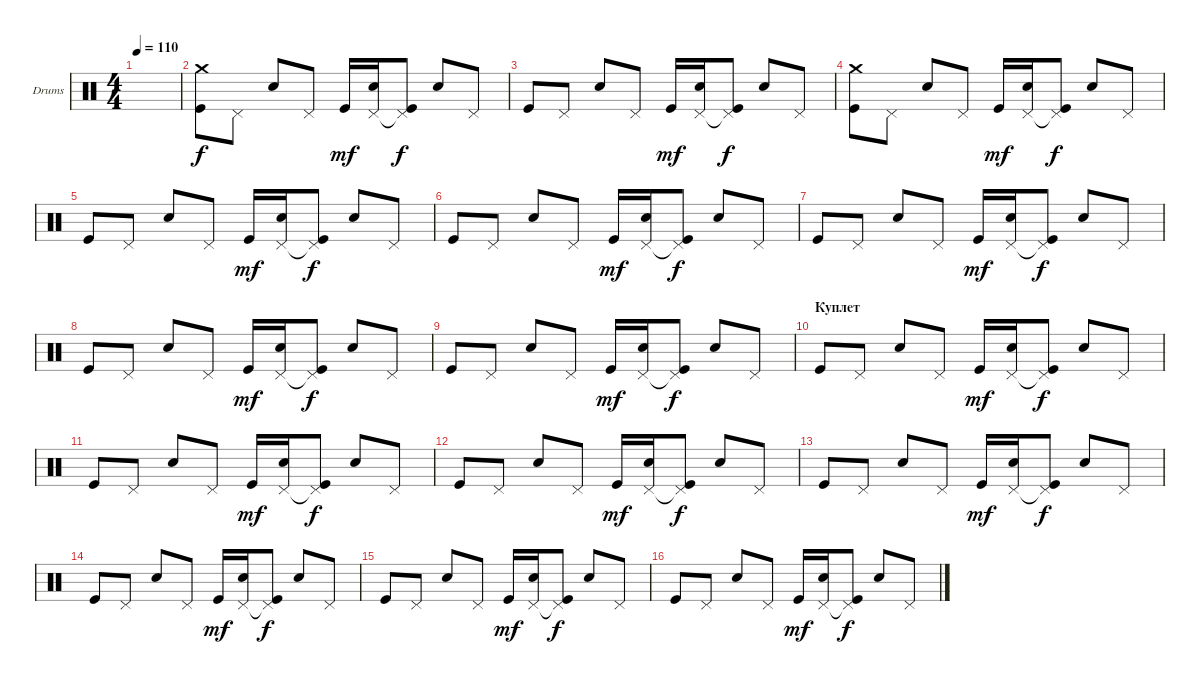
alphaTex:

\defaultSystemsLayout 4
\bracketExtendMode groupsimilarinstruments
\firstSystemTrackNameOrientation horizontal
\otherSystemsTrackNameOrientation horizontal
\track ("Е. Кулаков" "Drums") {instrument percussion}
\staff {score}
\articulation defaults
\ts (4 4)
\tempo 110
\clef neutral
\ks c
|
("Kick (hit)" "Crash medium (hit)").8 "Pedal Hi-Hat (hit)".8 "Snare (hit) 2".8 "Pedal Hi-Hat (hit)".8 "Kick (hit)".16{dy mf} ("Snare (hit) 2" "Pedal Hi-Hat (hit)").16 ("Kick (hit)" "Pedal Hi-Hat (hit)"{t}).8{dy f} "Snare (hit) 2".8 "Pedal Hi-Hat (hit)".8 |
"Kick (hit)".8 "Pedal Hi-Hat (hit)".8 "Snare (hit) 2".8 "Pedal Hi-Hat (hit)".8 "Kick (hit)".16{dy mf} ("Snare (hit) 2" "Pedal Hi-Hat (hit)").16 ("Kick (hit)" "Pedal Hi-Hat (hit)"{t}).8{dy f} "Snare (hit) 2".8 "Pedal Hi-Hat (hit)".8 |
("Kick (hit)" "Crash medium (hit)").8 "Pedal Hi-Hat (hit)".8 "Snare (hit) 2".8 "Pedal Hi-Hat (hit)".8 "Kick (hit)".16{dy mf} ("Snare (hit) 2" "Pedal Hi-Hat (hit)").16 ("Kick (hit)" "Pedal Hi-Hat (hit)"{t}).8{dy f} "Snare (hit) 2".8 "Pedal Hi-Hat (hit)".8 |
"Kick (hit)".8 "Pedal Hi-Hat (hit)".8 "Snare (hit) 2".8 "Pedal Hi-Hat (hit)".8 "Kick (hit)".16{dy mf} ("Snare (hit) 2" "Pedal Hi-Hat (hit)").16 ("Kick (hit)" "Pedal Hi-Hat (hit)"{t}).8{dy f} "Snare (hit) 2".8 "Pedal Hi-Hat (hit)".8 |
"Kick (hit)".8 "Pedal Hi-Hat (hit)".8 "Snare (hit) 2".8 "Pedal Hi-Hat (hit)".8 "Kick (hit)".16{dy mf} ("Snare (hit) 2" "Pedal Hi-Hat (hit)").16 ("Kick (hit)" "Pedal Hi-Hat (hit)"{t}).8{dy f} "Snare (hit) 2".8 "Pedal Hi-Hat (hit)".8 |
"Kick (hit)".8 "Pedal Hi-Hat (hit)".8 "Snare (hit) 2".8 "Pedal Hi-Hat (hit)".8 "Kick (hit)".16{dy mf} ("Snare (hit) 2" "Pedal Hi-Hat (hit)").16 ("Kick (hit)" "Pedal Hi-Hat (hit)"{t}).8{dy f} "Snare (hit) 2".8 "Pedal Hi-Hat (hit)".8 |
"Kick (hit)".8 "Pedal Hi-Hat (hit)".8 "Snare (hit) 2".8 "Pedal Hi-Hat (hit)".8 "Kick (hit)".16{dy mf} ("Snare (hit) 2" "Pedal Hi-Hat (hit)").16 ("Kick (hit)" "Pedal Hi-Hat (hit)"{t}).8{dy f} "Snare (hit) 2".8 "Pedal Hi-Hat (hit)".8 |
"Kick (hit)".8 "Pedal Hi-Hat (hit)".8 "Snare (hit) 2".8 "Pedal Hi-Hat (hit)".8 "Kick (hit)".16{dy mf} ("Snare (hit) 2" "Pedal Hi-Hat (hit)").16 ("Kick (hit)" "Pedal Hi-Hat (hit)"{t}).8{dy f} "Snare (hit) 2".8 "Pedal Hi-Hat (hit)".8 |
\section ("" "Куплет")
"Kick (hit)".8 "Pedal Hi-Hat (hit)".8 "Snare (hit) 2".8 "Pedal Hi-Hat (hit)".8 "Kick (hit)".16{dy mf} ("Snare (hit) 2" "Pedal Hi-Hat (hit)").16 ("Kick (hit)" "Pedal Hi-Hat (hit)"{t}).8{dy f} "Snare (hit) 2".8 "Pedal Hi-Hat (hit)".8 |
"Kick (hit)".8 "Pedal Hi-Hat (hit)".8 "Snare (hit) 2".8 "Pedal Hi-Hat (hit)".8 "Kick (hit)".16{dy mf} ("Snare (hit) 2" "Pedal Hi-Hat (hit)").16 ("Kick (hit)" "Pedal Hi-Hat (hit)"{t}).8{dy f} "Snare (hit) 2".8 "Pedal Hi-Hat (hit)".8 |
"Kick (hit)".8 "Pedal Hi-Hat (hit)".8 "Snare (hit) 2".8 "Pedal Hi-Hat (hit)".8 "Kick (hit)".16{dy mf} ("Snare (hit) 2" "Pedal Hi-Hat (hit)").16 ("Kick (hit)" "Pedal Hi-Hat (hit)"{t}).8{dy f} "Snare (hit) 2".8 "Pedal Hi-Hat (hit)".8 |
"Kick (hit)".8 "Pedal Hi-Hat (hit)".8 "Snare (hit) 2".8 "Pedal Hi-Hat (hit)".8 "Kick (hit)".16{dy mf} ("Snare (hit) 2" "Pedal Hi-Hat (hit)").16 ("Kick (hit)" "Pedal Hi-Hat (hit)"{t}).8{dy f} "Snare (hit) 2".8 "Pedal Hi-Hat (hit)".8 |
"Kick (hit)".8 "Pedal Hi-Hat (hit)".8 "Snare (hit) 2".8 "Pedal Hi-Hat (hit)".8 "Kick (hit)".16{dy mf} ("Snare (hit) 2" "Pedal Hi-Hat (hit)").16 ("Kick (hit)" "Pedal Hi-Hat (hit)"{t}).8{dy f} "Snare (hit) 2".8 "Pedal Hi-Hat (hit)".8 |
"Kick (hit)".8 "Pedal Hi-Hat (hit)".8 "Snare (hit) 2".8 "Pedal Hi-Hat (hit)".8 "Kick (hit)".16{dy mf} ("Snare (hit) 2" "Pedal Hi-Hat (hit)").16 ("Kick (hit)" "Pedal Hi-Hat (hit)"{t}).8{dy f} "Snare (hit) 2".8 "Pedal Hi-Hat (hit)".8 |
"Kick (hit)".8 "Pedal Hi-Hat (hit)".8 "Snare (hit) 2".8 "Pedal Hi-Hat (hit)".8 "Kick (hit)".16{dy mf} ("Snare (hit) 2" "Pedal Hi-Hat (hit)").16 ("Kick (hit)" "Pedal Hi-Hat (hit)"{t}).8{dy f} "Snare (hit) 2".8 "Pedal Hi-Hat (hit)".8
